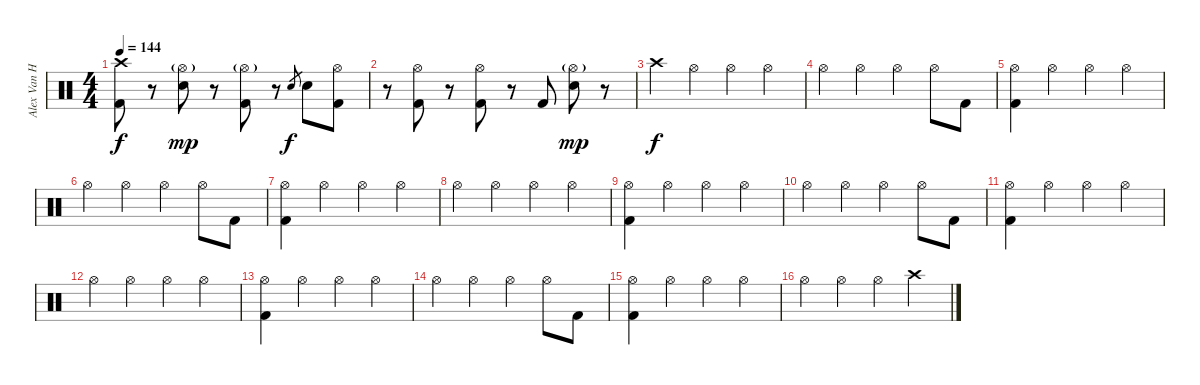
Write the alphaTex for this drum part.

\track ("Alex Van Halen" "Alex Van H") {instrument percussion}
\staff {score}
\articulation defaults
\ts (4 4)
\tempo 144
\clef neutral
\ks c
("Crash high (hit)" "Kick (hit) 2").8{dy f} r.8 ("Hi-Hat (open)"{g} "Electric Snare (hit)").8{dy mp} r.8 ("Hi-Hat (open)"{g} "Kick (hit) 2").8 r.8 "Electric Snare (hit)".8{gr dy f} "Electric Snare (hit)".8 ("Hi-Hat (open)" "Kick (hit) 2").8 |
r.8 ("Hi-Hat (open)" "Kick (hit) 2").8 r.8 ("Hi-Hat (open)" "Kick (hit) 2").8 r.8 "Kick (hit) 2".8 ("Hi-Hat (open)"{g} "Electric Snare (hit)").8{dy mp} r.8 |
"Crash high (hit)".4{dy f} "Hi-Hat (open)".4 "Hi-Hat (open)".4 "Hi-Hat (open)".4 |
"Hi-Hat (open)".4 "Hi-Hat (open)".4 "Hi-Hat (open)".4 "Hi-Hat (open)".8 "Kick (hit) 2".8 |
("Hi-Hat (open)" "Kick (hit) 2").4 "Hi-Hat (open)".4 "Hi-Hat (open)".4 "Hi-Hat (open)".4 |
"Hi-Hat (open)".4 "Hi-Hat (open)".4 "Hi-Hat (open)".4 "Hi-Hat (open)".8 "Kick (hit) 2".8 |
("Hi-Hat (open)" "Kick (hit) 2").4 "Hi-Hat (open)".4 "Hi-Hat (open)".4 "Hi-Hat (open)".4 |
"Hi-Hat (open)".4 "Hi-Hat (open)".4 "Hi-Hat (open)".4 "Hi-Hat (open)".4 |
("Hi-Hat (open)" "Kick (hit) 2").4 "Hi-Hat (open)".4 "Hi-Hat (open)".4 "Hi-Hat (open)".4 |
"Hi-Hat (open)".4 "Hi-Hat (open)".4 "Hi-Hat (open)".4 "Hi-Hat (open)".8 "Kick (hit) 2".8 |
("Hi-Hat (open)" "Kick (hit) 2").4 "Hi-Hat (open)".4 "Hi-Hat (open)".4 "Hi-Hat (open)".4 |
"Hi-Hat (open)".4 "Hi-Hat (open)".4 "Hi-Hat (open)".4 "Hi-Hat (open)".4 |
("Hi-Hat (open)" "Kick (hit) 2").4 "Hi-Hat (open)".4 "Hi-Hat (open)".4 "Hi-Hat (open)".4 |
"Hi-Hat (open)".4 "Hi-Hat (open)".4 "Hi-Hat (open)".4 "Hi-Hat (open)".8 "Kick (hit) 2".8 |
("Hi-Hat (open)" "Kick (hit) 2").4 "Hi-Hat (open)".4 "Hi-Hat (open)".4 "Hi-Hat (open)".4 |
"Hi-Hat (open)".4 "Hi-Hat (open)".4 "Hi-Hat (open)".4 "Crash high (hit)".4
